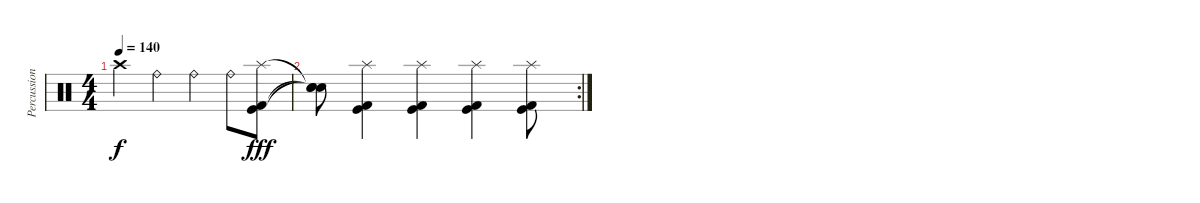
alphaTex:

\track ("Percussion" "Percussion") {instrument percussion}
\staff {score}
\articulation defaults
\ts (4 4)
\tempo 140
\clef neutral
\ks c "Crash high (hit)".4{dy f} "Ride (bell)".4 "Ride (bell)".4 "Ride (bell)".8
("Splash (hit)" "Kick (hit)" "Kick (hit) 2").8{dy fff} |
\rc 2
("Snare (hit)"{t} "Snare (hit)"{t} "Snare (hit)"{t}).8 ("Splash (hit)" "Kick (hit)" "Kick (hit) 2").4 ("Splash (hit)" "Kick (hit)" "Kick (hit) 2").4 ("Splash (hit)" "Kick (hit)" "Kick (hit) 2").4 ("Splash (hit)" "Kick (hit)" "Kick (hit) 2").8
